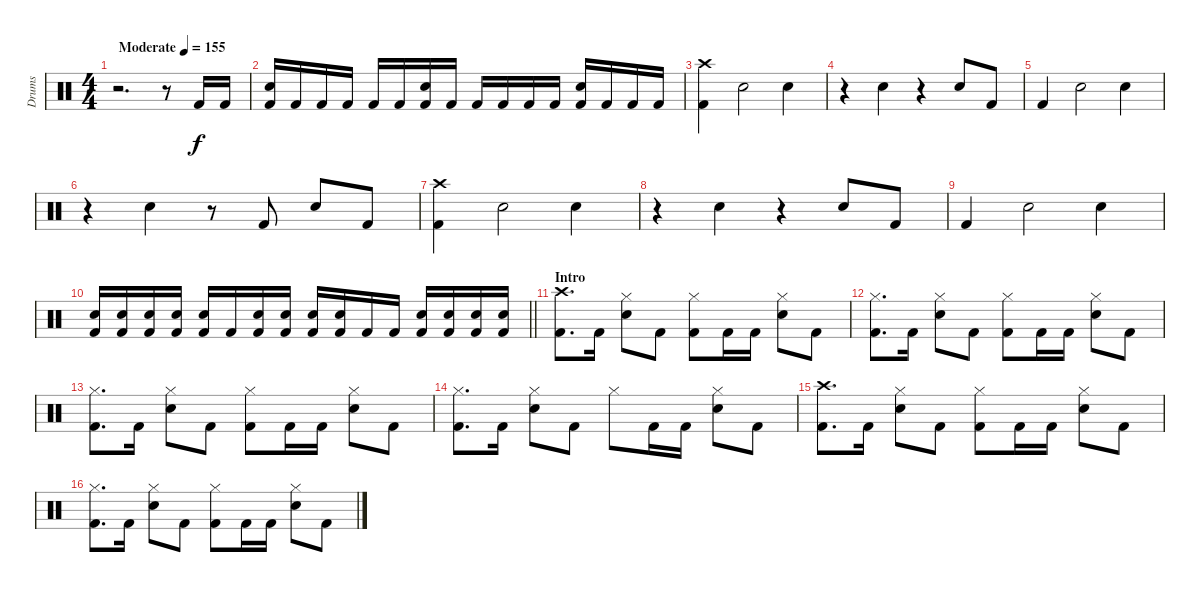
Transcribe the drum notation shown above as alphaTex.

\track ("Drums" "Drums") {instrument percussion}
\staff {score}
\articulation defaults
\ts (4 4)
\tempo (155 "Moderate")
\clef neutral
\ks c
r.2{d dy f} r.8 "Kick (hit) 2".16 "Kick (hit) 2".16 |
("Snare (hit) 2" "Kick (hit) 2").16 "Kick (hit) 2".16 "Kick (hit) 2".16 "Kick (hit) 2".16 "Kick (hit) 2".16 "Kick (hit) 2".16 ("Snare (hit) 2" "Kick (hit) 2").16 "Kick (hit) 2".16 "Kick (hit) 2".16 "Kick (hit) 2".16 "Kick (hit) 2".16 "Kick (hit) 2".16 ("Snare (hit) 2" "Kick (hit) 2").16 "Kick (hit) 2".16 "Kick (hit) 2".16 "Kick (hit) 2".16 |
("Crash high (hit)" "Kick (hit) 2").4 "Snare (hit) 2".2 "Snare (hit) 2".4 |
r.4 "Snare (hit) 2".4 r.4 "Snare (hit) 2".8 "Kick (hit) 2".8 |
"Kick (hit) 2".4 "Snare (hit) 2".2 "Snare (hit) 2".4 |
r.4 "Snare (hit) 2".4 r.8 "Kick (hit) 2".8 "Snare (hit) 2".8 "Kick (hit) 2".8 |
("Crash high (hit)" "Kick (hit) 2").4 "Snare (hit) 2".2 "Snare (hit) 2".4 |
r.4 "Snare (hit) 2".4 r.4 "Snare (hit) 2".8 "Kick (hit) 2".8 |
"Kick (hit) 2".4 "Snare (hit) 2".2 "Snare (hit) 2".4 |
\barLineRight lightlight
("Snare (hit) 2" "Kick (hit) 2").16 ("Snare (hit) 2" "Kick (hit) 2").16 ("Snare (hit) 2" "Kick (hit) 2").16 ("Snare (hit) 2" "Kick (hit) 2").16 ("Snare (hit) 2" "Kick (hit) 2").16 "Kick (hit) 2".16 ("Snare (hit) 2" "Kick (hit) 2").16 ("Snare (hit) 2" "Kick (hit) 2").16 ("Snare (hit) 2" "Kick (hit) 2").16 ("Snare (hit) 2" "Kick (hit) 2").16 "Kick (hit) 2".16 "Kick (hit) 2".16 ("Snare (hit) 2" "Kick (hit) 2").16 ("Snare (hit) 2" "Kick (hit) 2").16 ("Snare (hit) 2" "Kick (hit) 2").16 ("Snare (hit) 2" "Kick (hit) 2").16 |
\section ("" "Intro")
("Crash high (hit)" "Kick (hit) 2").8{d} "Kick (hit) 2".16 ("Hi-Hat (closed)" "Snare (hit) 2").8 "Kick (hit) 2".8 ("Hi-Hat (closed)" "Kick (hit) 2").8 "Kick (hit) 2".16 "Kick (hit) 2".16 ("Hi-Hat (closed)" "Snare (hit) 2").8 "Kick (hit) 2".8 |
("Hi-Hat (closed)" "Kick (hit) 2").8{d} "Kick (hit) 2".16 ("Hi-Hat (closed)" "Snare (hit) 2").8 "Kick (hit) 2".8 ("Hi-Hat (closed)" "Kick (hit) 2").8 "Kick (hit) 2".16 "Kick (hit) 2".16 ("Hi-Hat (closed)" "Snare (hit) 2").8 "Kick (hit) 2".8 |
("Hi-Hat (closed)" "Kick (hit) 2").8{d} "Kick (hit) 2".16 ("Hi-Hat (closed)" "Snare (hit) 2").8 "Kick (hit) 2".8 ("Hi-Hat (closed)" "Kick (hit) 2").8 "Kick (hit) 2".16 "Kick (hit) 2".16 ("Hi-Hat (closed)" "Snare (hit) 2").8 "Kick (hit) 2".8 |
("Hi-Hat (closed)" "Kick (hit) 2").8{d} "Kick (hit) 2".16 ("Hi-Hat (closed)" "Snare (hit) 2").8 "Kick (hit) 2".8 "Hi-Hat (closed)".8 "Kick (hit) 2".16 "Kick (hit) 2".16 ("Hi-Hat (closed)" "Snare (hit) 2").8 "Kick (hit) 2".8 |
("Crash high (hit)" "Kick (hit) 2").8{d} "Kick (hit) 2".16 ("Hi-Hat (closed)" "Snare (hit) 2").8 "Kick (hit) 2".8 ("Hi-Hat (closed)" "Kick (hit) 2").8 "Kick (hit) 2".16 "Kick (hit) 2".16 ("Hi-Hat (closed)" "Snare (hit) 2").8 "Kick (hit) 2".8 |
("Hi-Hat (closed)" "Kick (hit) 2").8{d} "Kick (hit) 2".16 ("Hi-Hat (closed)" "Snare (hit) 2").8 "Kick (hit) 2".8 ("Hi-Hat (closed)" "Kick (hit) 2").8 "Kick (hit) 2".16 "Kick (hit) 2".16 ("Hi-Hat (closed)" "Snare (hit) 2").8 "Kick (hit) 2".8
